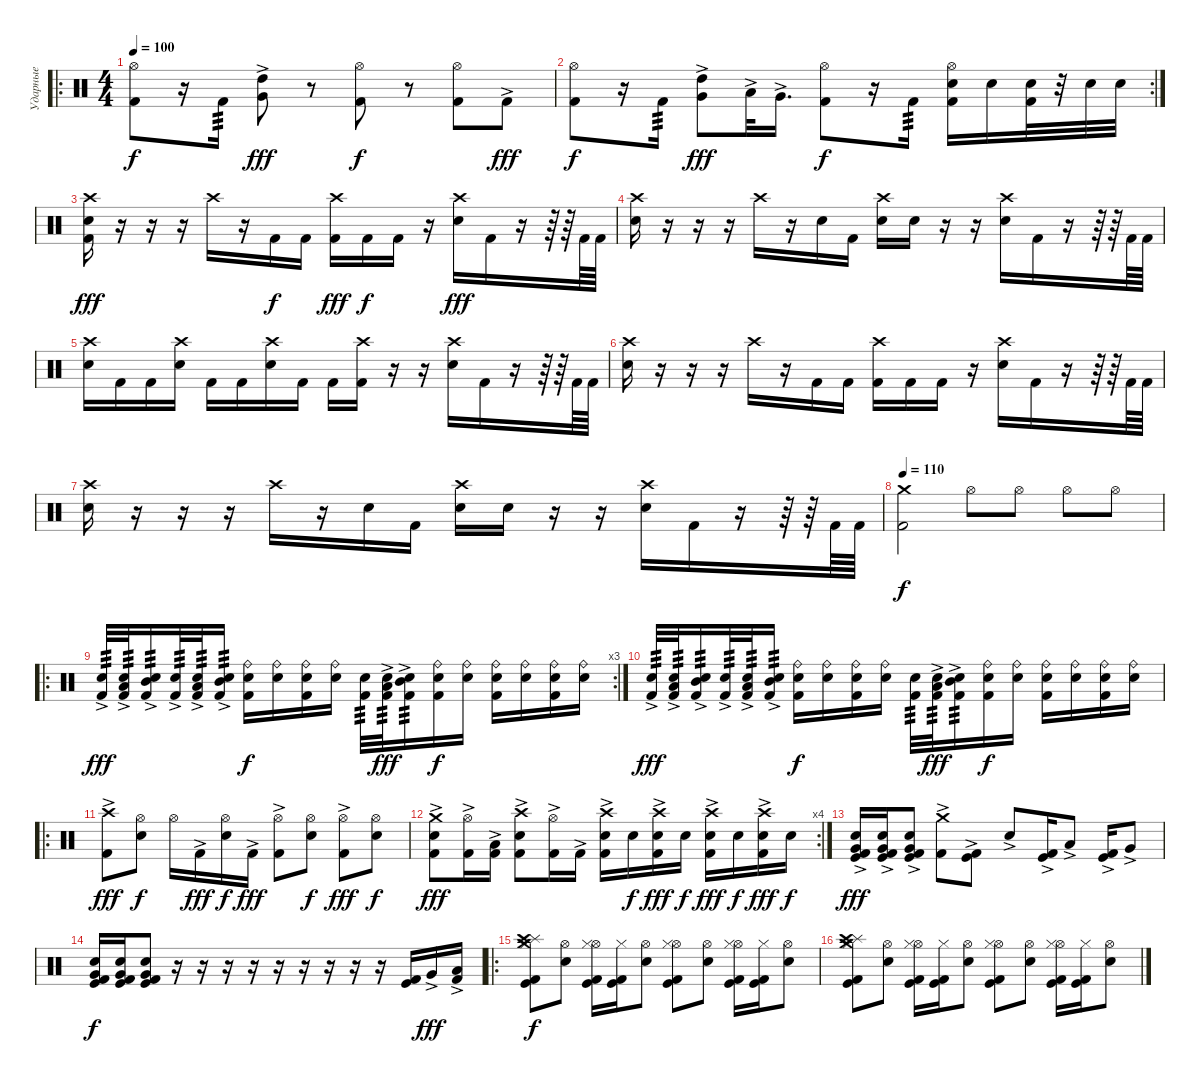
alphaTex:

\track ("Ударные" "Ударные") {instrument percussion}
\staff {score}
\articulation defaults
\ro
\ts (4 4)
\tempo 100
\tempo 50
\tempo 100
\clef neutral
\ks c
("Hi-Hat (open)" "Kick (hit) 2").8{dy f} r.16 "Kick (hit) 2".16{tp 3} ("Very Low Tom (hit)"{ac} "High Tom (hit)"{ac}).8{dy fff} r.8 ("Hi-Hat (open)" "Kick (hit) 2").8{dy f} r.8 ("Hi-Hat (open)" "Kick (hit) 2").8 "Kick (hit) 2"{ac}.8{dy fff} |
\rc 2
("Hi-Hat (open)" "Kick (hit) 2").8{dy f} r.16 "Kick (hit) 2".16{tp 3} ("Very Low Tom (hit)"{ac} "High Tom (hit)"{ac}).8{dy fff} "Low Tom (hit)"{ac}.32 "Very Low Tom (hit)"{ac}.16{d} ("Hi-Hat (open)" "Kick (hit) 2").8{dy f} r.16 "Kick (hit) 2".16{tp 3} ("Electric Snare (hit)" "Hi-Hat (open)" "Kick (hit) 2").16 "Electric Snare (hit)".16 ("Electric Snare (hit)" "Kick (hit) 2").32 r.32 "Electric Snare (hit)".32 "Electric Snare (hit)".32 |
("Crash high (hit)" "Electric Snare (hit)" "Kick (hit) 2").16{dy fff} r.16 r.16 r.16 "Crash high (hit)".16 r.16 "Kick (hit) 2".16{dy f} "Kick (hit) 2".16 ("Crash high (hit)" "Kick (hit) 2").16{dy fff} "Kick (hit) 2".16{dy f} "Kick (hit) 2".16 r.16 ("Crash high (hit)" "Electric Snare (hit)").16{dy fff} "Kick (hit) 2".16 r.16 r.64 r.64 "Kick (hit) 2".64 "Kick (hit) 2".64 |
("Crash high (hit)" "Electric Snare (hit)").16 r.16 r.16 r.16 "Crash high (hit)".16 r.16 "Electric Snare (hit)".16 "Kick (hit) 2".16 ("Crash high (hit)" "Electric Snare (hit)").16 "Electric Snare (hit)".16 r.16 r.16 ("Crash high (hit)" "Electric Snare (hit)").16 "Kick (hit) 2".16 r.16 r.64 r.64 "Kick (hit) 2".64 "Kick (hit) 2".64 |
("Crash high (hit)" "Electric Snare (hit)").16 "Kick (hit) 2".16 "Kick (hit) 2".16 ("Crash high (hit)" "Electric Snare (hit)").16 "Kick (hit) 2".16 "Kick (hit) 2".16 ("Crash high (hit)" "Electric Snare (hit)").16 "Kick (hit) 2".16 "Kick (hit) 2".16 ("Crash high (hit)" "Kick (hit) 2").16 r.16 r.16 ("Crash high (hit)" "Electric Snare (hit)").16 "Kick (hit) 2".16 r.16 r.64 r.64 "Kick (hit) 2".64 "Kick (hit) 2".64 |
("Crash high (hit)" "Electric Snare (hit)").16 r.16 r.16 r.16 "Crash high (hit)".16 r.16 "Kick (hit) 2".16 "Kick (hit) 2".16 ("Crash high (hit)" "Kick (hit) 2").16 "Kick (hit) 2".16 "Kick (hit) 2".16 r.16 ("Crash high (hit)" "Electric Snare (hit)").16 "Kick (hit) 2".16 r.16 r.64 r.64 "Kick (hit) 2".64 "Kick (hit) 2".64 |
("Crash high (hit)" "Electric Snare (hit)").16 r.16 r.16 r.16 "Crash high (hit)".16 r.16 "Electric Snare (hit)".16 "Kick (hit) 2".16 ("Crash high (hit)" "Electric Snare (hit)").16 "Electric Snare (hit)".16 r.16 r.16 ("Crash high (hit)" "Electric Snare (hit)").16 "Kick (hit) 2".16 r.16 r.64 r.64 "Kick (hit) 2".64 "Kick (hit) 2".64 |
\tempo 110
("Kick (hit) 2" "Crash medium (hit)").2{dy f} "Hi-Hat (open)".8 "Hi-Hat (open)".8 "Hi-Hat (open)".8 "Hi-Hat (open)".8 |
\ro
\rc 3
("Electric Snare (hit)" "Kick (hit) 2"{ac}).32{tp 3 dy fff} ("Low Tom (hit)"{ac} "Snare (hit) 2" "Kick (hit) 2"{ac}).32{tp 3} ("Mid Tom (hit)"{ac} "Snare (hit) 2" "Kick (hit) 2"{ac}).16{tp 3} ("Electric Snare (hit)" "Kick (hit) 2"{ac}).32{tp 3} ("Low Tom (hit)"{ac} "Snare (hit) 2" "Kick (hit) 2"{ac}).32{tp 3} ("Mid Tom (hit)"{ac} "Snare (hit) 2" "Kick (hit) 2"{ac}).16{tp 3} ("Ride (bell)" "Electric Snare (hit)" "Kick (hit) 2").16{dy f} ("Ride (bell)" "Electric Snare (hit)").16 ("Ride (bell)" "Electric Snare (hit)" "Kick (hit) 2").16 ("Ride (bell)" "Electric Snare (hit)").16 ("Electric Snare (hit)" "Kick (hit) 2").32{tp 3} ("Low Tom (hit)"{ac} "Snare (hit) 2" "Kick (hit) 2").32{tp 3 dy fff} ("Mid Tom (hit)"{ac} "Snare (hit) 2" "Kick (hit) 2").16{tp 3} ("Ride (bell)" "Electric Snare (hit)" "Kick (hit) 2").16{dy f} ("Ride (bell)" "Electric Snare (hit)").16 ("Ride (bell)" "Electric Snare (hit)" "Kick (hit) 2").16 ("Ride (bell)" "Electric Snare (hit)").16 ("Ride (bell)" "Electric Snare (hit)" "Kick (hit) 2").16 ("Ride (bell)" "Electric Snare (hit)").16 |
("Electric Snare (hit)" "Kick (hit) 2"{ac}).32{tp 3 dy fff} ("Low Tom (hit)"{ac} "Snare (hit) 2" "Kick (hit) 2"{ac}).32{tp 3} ("Mid Tom (hit)"{ac} "Snare (hit) 2" "Kick (hit) 2"{ac}).16{tp 3} ("Electric Snare (hit)" "Kick (hit) 2"{ac}).32{tp 3} ("Low Tom (hit)"{ac} "Snare (hit) 2" "Kick (hit) 2"{ac}).32{tp 3} ("Mid Tom (hit)"{ac} "Snare (hit) 2" "Kick (hit) 2"{ac}).16{tp 3} ("Ride (bell)" "Electric Snare (hit)" "Kick (hit) 2").16{dy f} ("Ride (bell)" "Electric Snare (hit)").16 ("Ride (bell)" "Electric Snare (hit)" "Kick (hit) 2").16 ("Ride (bell)" "Electric Snare (hit)").16 ("Electric Snare (hit)" "Kick (hit) 2").32{tp 3} ("Low Tom (hit)"{ac} "Snare (hit) 2" "Kick (hit) 2").32{tp 3 dy fff} ("Mid Tom (hit)"{ac} "Snare (hit) 2" "Kick (hit) 2").16{tp 3} ("Ride (bell)" "Electric Snare (hit)" "Kick (hit) 2").16{dy f} ("Ride (bell)" "Electric Snare (hit)").16 ("Ride (bell)" "Electric Snare (hit)" "Kick (hit) 2").16 ("Ride (bell)" "Electric Snare (hit)").16 ("Ride (bell)" "Electric Snare (hit)" "Kick (hit) 2").16 ("Ride (bell)" "Electric Snare (hit)").16 |
\ro
("Crash high (hit)" "Kick (hit) 2"{ac}).8{dy fff} ("Hi-Hat (open)" "Electric Snare (hit)").8{dy f} "Hi-Hat (open)".16 "Kick (hit) 2"{ac}.16{dy fff} ("Hi-Hat (open)" "Electric Snare (hit)").16{dy f} "Kick (hit) 2"{ac}.16{dy fff} ("Hi-Hat (open)" "Kick (hit) 2"{ac}).8 ("Hi-Hat (open)" "Electric Snare (hit)").8{dy f} ("Hi-Hat (open)" "Kick (hit) 2"{ac}).8{dy fff} ("Hi-Hat (open)" "Electric Snare (hit)").8{dy f} |
\rc 4
("Crash medium (hit)" "Electric Snare (hit)" "Kick (hit) 2"{ac}).8{dy fff} ("Hi-Hat (open)" "Kick (hit) 2"{ac}).16 ("Low Tom (hit)" "Kick (hit) 2"{ac}).16 ("Crash high (hit)" "Electric Snare (hit)" "Kick (hit) 2"{ac}).8 ("Hi-Hat (open)" "Kick (hit) 2"{ac}).16 "Kick (hit) 2"{ac}.16 ("Crash high (hit)" "Electric Snare (hit)" "Kick (hit) 2"{ac}).16 "Electric Snare (hit)".16{dy f} ("Crash high (hit)" "Electric Snare (hit)" "Kick (hit) 2"{ac}).16{dy fff} "Electric Snare (hit)".16{dy f} ("Crash high (hit)" "Electric Snare (hit)" "Kick (hit) 2"{ac}).16{dy fff} "Electric Snare (hit)".16{dy f} ("Crash high (hit)" "Electric Snare (hit)" "Kick (hit) 2"{ac}).16{dy fff} "Electric Snare (hit)".16{dy f} |
("Electric Snare (hit)" "Very Low Tom (hit)" "Kick (hit)" "Kick (hit) 2"{ac}).16{dy fff} ("Electric Snare (hit)" "Very Low Tom (hit)" "Kick (hit)" "Kick (hit) 2"{ac}).16 ("Electric Snare (hit)" "Very Low Tom (hit)" "Kick (hit)" "Kick (hit) 2"{ac}).8 ("Crash medium (hit)" "Kick (hit) 2"{ac}).8 ("Kick (hit)" "Kick (hit) 2"{ac}).8 "Electric Snare (hit)"{ac}.8 ("Kick (hit)" "Kick (hit) 2"{ac}).16 "Low Tom (hit)"{ac}.8 ("Kick (hit)" "Kick (hit) 2"{ac}).16 "Very Low Tom (hit)"{ac}.8 |
("Electric Snare (hit)" "Very Low Tom (hit)" "Kick (hit)" "Kick (hit) 2").16{dy f} ("Electric Snare (hit)" "Very Low Tom (hit)" "Kick (hit)" "Kick (hit) 2").16 ("Electric Snare (hit)" "Very Low Tom (hit)" "Kick (hit)" "Kick (hit) 2").8 r.16 r.16 r.16 r.16 r.16 r.16 r.16 r.16 r.16 ("Kick (hit)" "Kick (hit) 2").16 "Very Low Tom (hit)"{ac}.16{dy fff} ("Low Tom (hit)"{ac} "Kick (hit) 2").16 |
\ro
("Splash (hit)" "Crash medium (hit)" "Crash high (hit)" "Kick (hit)" "Kick (hit) 2" "Hi-Hat (closed)").8{dy f} ("Hi-Hat (open)" "Electric Snare (hit)").8 ("Hi-Hat (open)" "Kick (hit)" "Kick (hit) 2" "Hi-Hat (closed)").16 ("Kick (hit)" "Kick (hit) 2" "Hi-Hat (closed)").16 ("Hi-Hat (open)" "Electric Snare (hit)").8 ("Hi-Hat (open)" "Kick (hit)" "Kick (hit) 2" "Hi-Hat (closed)").8 ("Hi-Hat (open)" "Electric Snare (hit)").8 ("Hi-Hat (open)" "Kick (hit)" "Kick (hit) 2" "Hi-Hat (closed)").16 ("Kick (hit)" "Kick (hit) 2" "Hi-Hat (closed)").16 ("Hi-Hat (open)" "Electric Snare (hit)").8 |
("Splash (hit)" "Crash medium (hit)" "Crash high (hit)" "Kick (hit)" "Kick (hit) 2" "Hi-Hat (closed)").8 ("Hi-Hat (open)" "Electric Snare (hit)").8 ("Hi-Hat (open)" "Kick (hit)" "Kick (hit) 2" "Hi-Hat (closed)").16 ("Kick (hit)" "Kick (hit) 2" "Hi-Hat (closed)").16 ("Hi-Hat (open)" "Electric Snare (hit)").8 ("Hi-Hat (open)" "Kick (hit)" "Kick (hit) 2" "Hi-Hat (closed)").8 ("Hi-Hat (open)" "Electric Snare (hit)").8 ("Hi-Hat (open)" "Kick (hit)" "Kick (hit) 2" "Hi-Hat (closed)").16 ("Kick (hit)" "Kick (hit) 2" "Hi-Hat (closed)").16 ("Hi-Hat (open)" "Electric Snare (hit)").8
